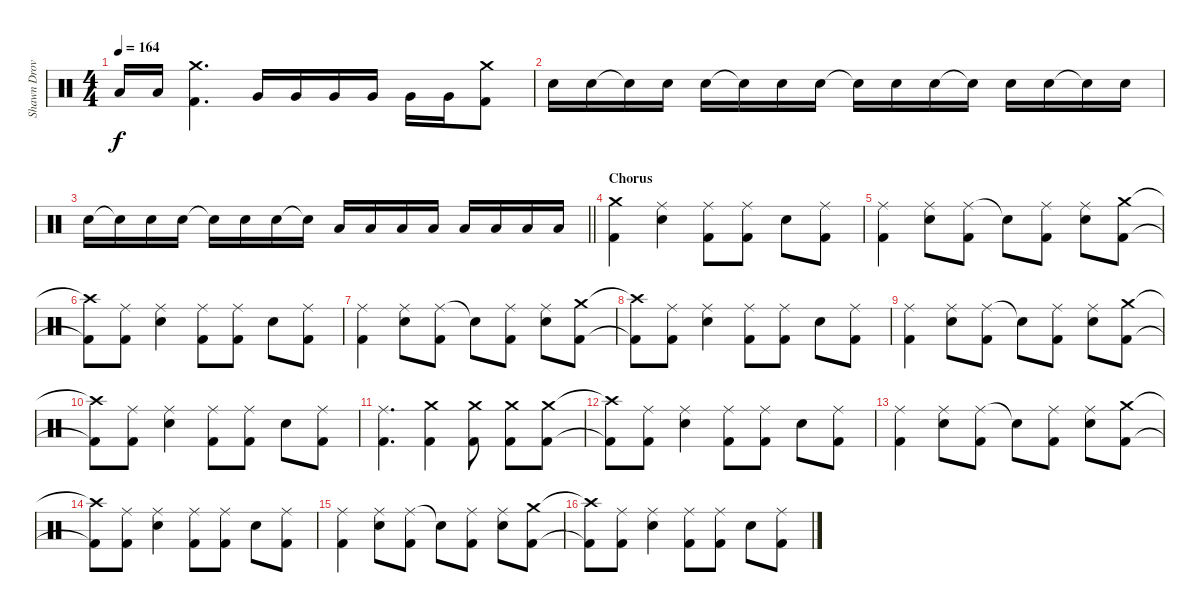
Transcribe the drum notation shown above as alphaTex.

\track ("Shawn Drover" "Shawn Drov") {instrument percussion}
\staff {score}
\articulation defaults
\ts (4 4)
\tempo 164
\clef neutral
\ks c "Low Tom (hit)".16{dy f} "Low Tom (hit)".16
("Crash medium (hit)" "Kick (hit) 2").4{d} "Very Low Tom (hit)".16 "Very Low Tom (hit)".16 "Very Low Tom (hit)".16 "Very Low Tom (hit)".16 "Very Low Tom (hit)".16 "Very Low Tom (hit)".16 ("Crash medium (hit)" "Kick (hit) 2").8 |
"Snare (hit) 2".16 "Snare (hit) 2".16 "Snare (hit)"{t}.16 "Snare (hit) 2".16 "Snare (hit) 2".16 "Snare (hit)"{t}.16 "Snare (hit) 2".16 "Snare (hit) 2".16 "Snare (hit)"{t}.16 "Snare (hit) 2".16 "Snare (hit) 2".16 "Snare (hit)"{t}.16 "Snare (hit) 2".16 "Snare (hit) 2".16 "Snare (hit)"{t}.16 "Snare (hit) 2".16 |
\barLineRight lightlight "Snare (hit) 2".16 "Snare (hit)"{t}.16 "Snare (hit) 2".16 "Snare (hit) 2".16 "Snare (hit)"{t}.16 "Snare (hit) 2".16 "Snare (hit) 2".16 "Snare (hit)"{t}.16 "Low Tom (hit)".16 "Low Tom (hit)".16 "Low Tom (hit)".16 "Low Tom (hit)".16 "Low Tom (hit)".16 "Low Tom (hit)".16 "Low Tom (hit)".16 "Low Tom (hit)".16
|
\section ("" "Chorus")
("Crash medium (hit)" "Kick (hit) 2").4 ("Ride (middle)" "Snare (hit) 2").4 ("Ride (middle)" "Kick (hit) 2").8 ("Ride (middle)" "Kick (hit) 2").8 "Snare (hit) 2".8 ("Ride (middle)" "Kick (hit) 2").8 |
("Ride (middle)" "Kick (hit) 2").4 ("Ride (middle)" "Snare (hit) 2").8 ("Ride (middle)" "Kick (hit) 2").8 "Snare (hit)"{t}.8 ("Ride (middle)" "Kick (hit) 2").8 ("Ride (middle)" "Snare (hit) 2").8 ("Crash medium (hit)" "Kick (hit) 2").8 |
("Crash high (hit)"{t} "Kick (hit) 2"{t}).8 ("Ride (middle)" "Kick (hit) 2").8 ("Ride (middle)" "Snare (hit) 2").4 ("Ride (middle)" "Kick (hit) 2").8 ("Ride (middle)" "Kick (hit) 2").8 "Snare (hit) 2".8 ("Ride (middle)" "Kick (hit) 2").8 |
("Ride (middle)" "Kick (hit) 2").4 ("Ride (middle)" "Snare (hit) 2").8 ("Ride (middle)" "Kick (hit) 2").8 "Snare (hit)"{t}.8 ("Ride (middle)" "Kick (hit) 2").8 ("Ride (middle)" "Snare (hit) 2").8 ("Crash medium (hit)" "Kick (hit) 2").8 |
("Crash high (hit)"{t} "Kick (hit) 2"{t}).8 ("Ride (middle)" "Kick (hit) 2").8 ("Ride (middle)" "Snare (hit) 2").4 ("Ride (middle)" "Kick (hit) 2").8 ("Ride (middle)" "Kick (hit) 2").8 "Snare (hit) 2".8 ("Ride (middle)" "Kick (hit) 2").8 |
("Ride (middle)" "Kick (hit) 2").4 ("Ride (middle)" "Snare (hit) 2").8 ("Ride (middle)" "Kick (hit) 2").8 "Snare (hit)"{t}.8 ("Ride (middle)" "Kick (hit) 2").8 ("Ride (middle)" "Snare (hit) 2").8 ("Crash medium (hit)" "Kick (hit) 2").8 |
("Crash high (hit)"{t} "Kick (hit) 2"{t}).8 ("Ride (middle)" "Kick (hit) 2").8 ("Ride (middle)" "Snare (hit) 2").4 ("Ride (middle)" "Kick (hit) 2").8 ("Ride (middle)" "Kick (hit) 2").8 "Snare (hit) 2".8 ("Ride (middle)" "Kick (hit) 2").8 |
("Ride (middle)" "Kick (hit) 2").4{d} ("Crash medium (hit)" "Kick (hit) 2").4 ("Crash medium (hit)" "Kick (hit) 2").8 ("Crash medium (hit)" "Kick (hit) 2").8 ("Crash medium (hit)" "Kick (hit) 2").8 |
("Crash high (hit)"{t} "Kick (hit) 2"{t}).8 ("Ride (middle)" "Kick (hit) 2").8 ("Ride (middle)" "Snare (hit) 2").4 ("Ride (middle)" "Kick (hit) 2").8 ("Ride (middle)" "Kick (hit) 2").8 "Snare (hit) 2".8 ("Ride (middle)" "Kick (hit) 2").8 |
("Ride (middle)" "Kick (hit) 2").4 ("Ride (middle)" "Snare (hit) 2").8 ("Ride (middle)" "Kick (hit) 2").8 "Snare (hit)"{t}.8 ("Ride (middle)" "Kick (hit) 2").8 ("Ride (middle)" "Snare (hit) 2").8 ("Crash medium (hit)" "Kick (hit) 2").8 |
("Crash high (hit)"{t} "Kick (hit) 2"{t}).8 ("Ride (middle)" "Kick (hit) 2").8 ("Ride (middle)" "Snare (hit) 2").4 ("Ride (middle)" "Kick (hit) 2").8 ("Ride (middle)" "Kick (hit) 2").8 "Snare (hit) 2".8 ("Ride (middle)" "Kick (hit) 2").8 |
("Ride (middle)" "Kick (hit) 2").4 ("Ride (middle)" "Snare (hit) 2").8 ("Ride (middle)" "Kick (hit) 2").8 "Snare (hit)"{t}.8 ("Ride (middle)" "Kick (hit) 2").8 ("Ride (middle)" "Snare (hit) 2").8 ("Crash medium (hit)" "Kick (hit) 2").8 |
("Crash high (hit)"{t} "Kick (hit) 2"{t}).8 ("Ride (middle)" "Kick (hit) 2").8 ("Ride (middle)" "Snare (hit) 2").4 ("Ride (middle)" "Kick (hit) 2").8 ("Ride (middle)" "Kick (hit) 2").8 "Snare (hit) 2".8 ("Ride (middle)" "Kick (hit) 2").8
